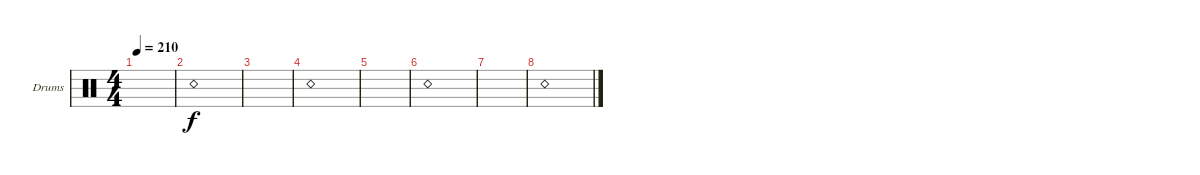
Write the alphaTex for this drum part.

\defaultSystemsLayout 4
\bracketExtendMode groupsimilarinstruments
\firstSystemTrackNameOrientation horizontal
\otherSystemsTrackNameOrientation horizontal
\track ("Drumkitsn" "Drums") {instrument percussion}
\staff {score}
\articulation defaults
\ts (4 4)
\tempo 210
\clef neutral
\ks c
|
"Snare (rim shot)".1 |
|
"Snare (rim shot)".1 |
|
"Snare (rim shot)".1 |
|
"Snare (rim shot)".1
